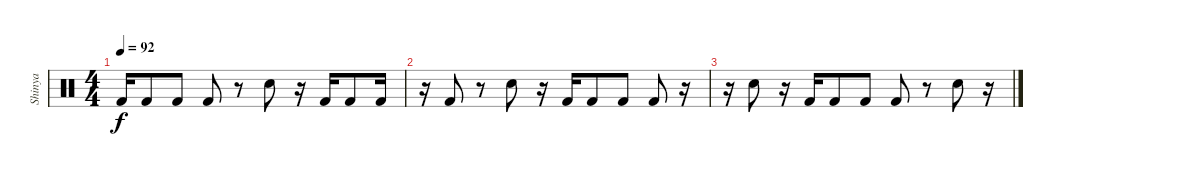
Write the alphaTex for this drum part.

\track ("Shinya" "Shinya") {instrument percussion}
\staff {score}
\articulation defaults
\ts (4 4)
\tempo 92
\clef neutral
\ks c "Kick (hit) 2".16{dy f} "Kick (hit) 2".8 "Kick (hit) 2".8 "Kick (hit) 2".8
r.8 "Snare (hit) 2".8 r.16 "Kick (hit) 2".16 "Kick (hit) 2".8 "Kick (hit) 2".16 |
r.16 "Kick (hit) 2".8 r.8 "Snare (hit) 2".8 r.16 "Kick (hit) 2".16 "Kick (hit) 2".8 "Kick (hit) 2".8 "Kick (hit) 2".8 r.16 |
r.16 "Snare (hit) 2".8 r.16 "Kick (hit) 2".16 "Kick (hit) 2".8 "Kick (hit) 2".8 "Kick (hit) 2".8 r.8 "Snare (hit) 2".8 r.16
